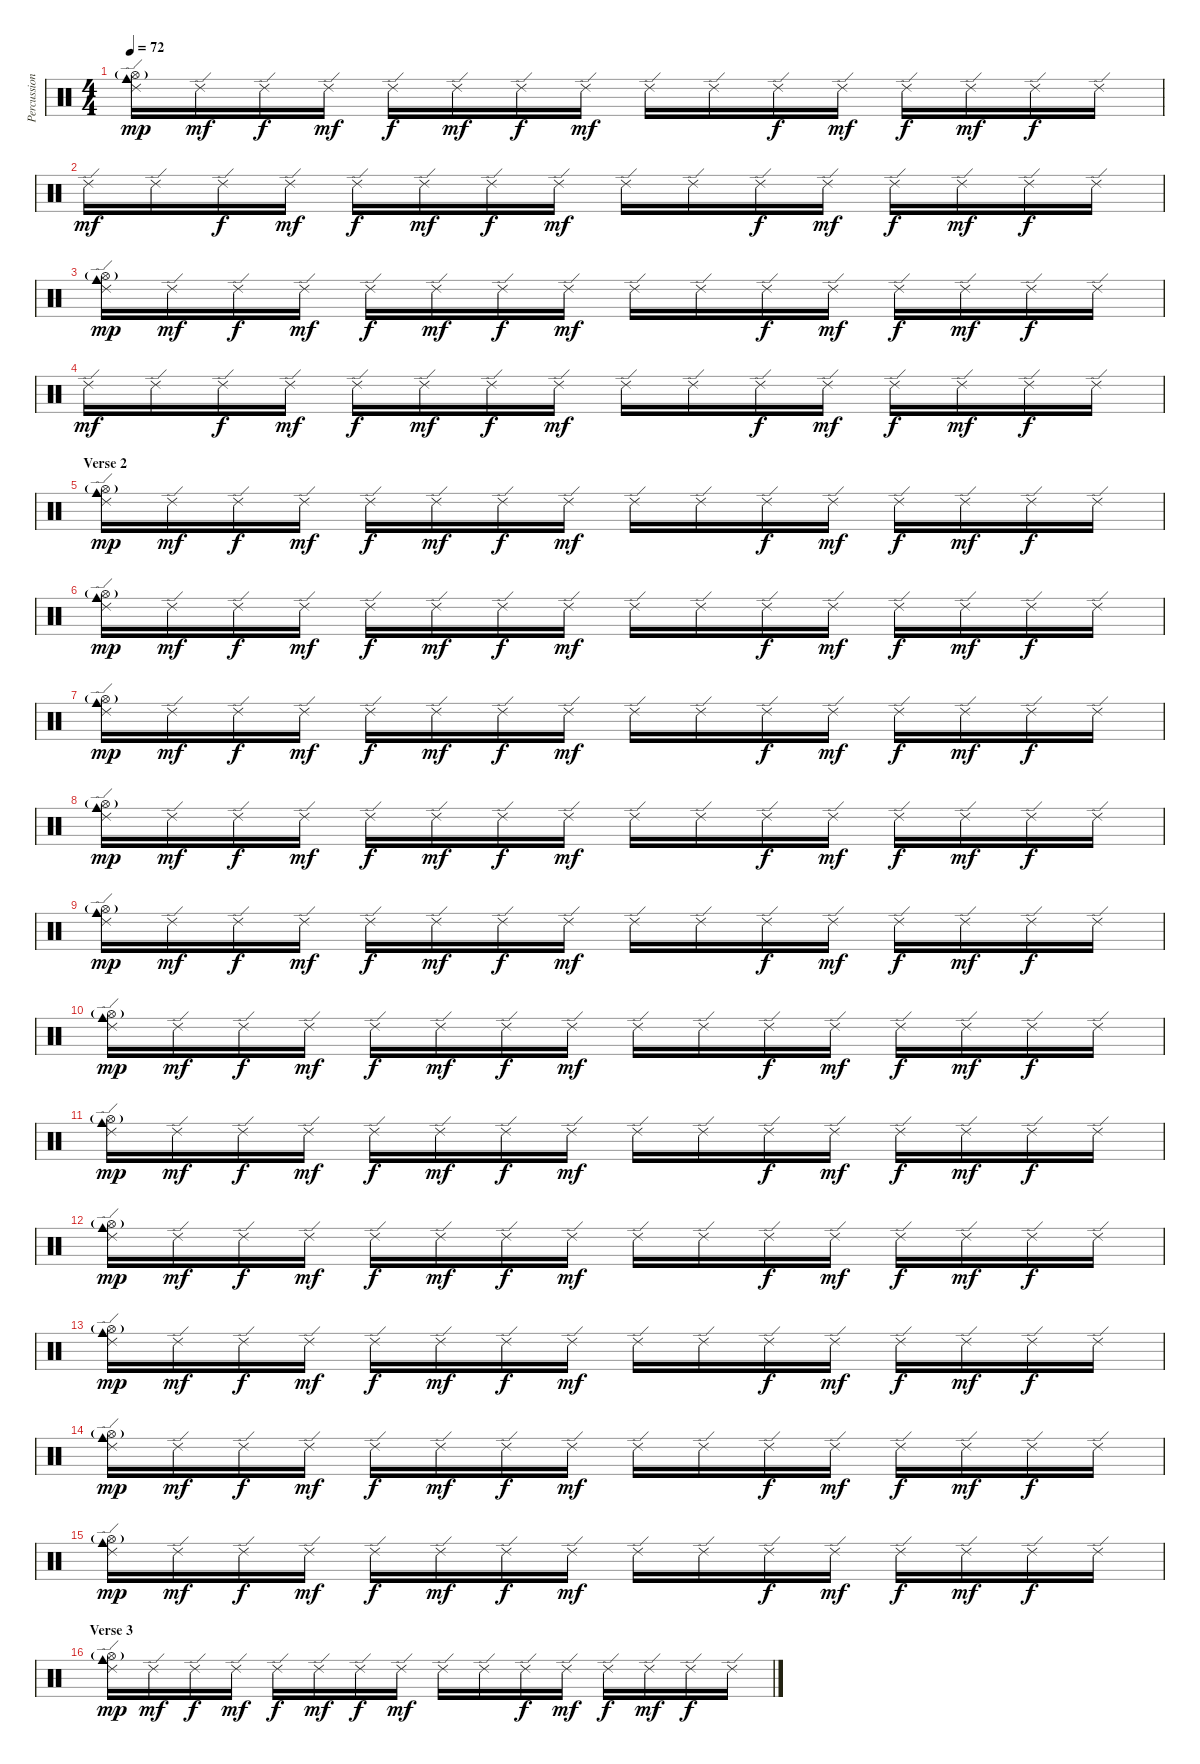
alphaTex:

\track ("Percussion" "Percussion") {instrument percussion}
\staff {score}
\articulation defaults
\ts (4 4)
\tempo 72
\clef neutral
\ks c
("Ride (edge) 2" "Hi-Hat (open)"{g} "Cowbell medium (hit)").16{dy mp} "Ride (edge) 2".16{dy mf} "Ride (edge) 2".16{dy f} "Ride (edge) 2".16{dy mf} "Ride (edge) 2".16{dy f} "Ride (edge) 2".16{dy mf} "Ride (edge) 2".16{dy f} "Ride (edge) 2".16{dy mf} "Ride (edge) 2".16 "Ride (edge) 2".16 "Ride (edge) 2".16{dy f} "Ride (edge) 2".16{dy mf} "Ride (edge) 2".16{dy f} "Ride (edge) 2".16{dy mf} "Ride (edge) 2".16{dy f} "Ride (edge) 2".16 |
"Ride (edge) 2".16{dy mf} "Ride (edge) 2".16 "Ride (edge) 2".16{dy f} "Ride (edge) 2".16{dy mf} "Ride (edge) 2".16{dy f} "Ride (edge) 2".16{dy mf} "Ride (edge) 2".16{dy f} "Ride (edge) 2".16{dy mf} "Ride (edge) 2".16 "Ride (edge) 2".16 "Ride (edge) 2".16{dy f} "Ride (edge) 2".16{dy mf} "Ride (edge) 2".16{dy f} "Ride (edge) 2".16{dy mf} "Ride (edge) 2".16{dy f} "Ride (edge) 2".16 |
("Ride (edge) 2" "Hi-Hat (open)"{g} "Cowbell medium (hit)").16{dy mp} "Ride (edge) 2".16{dy mf} "Ride (edge) 2".16{dy f} "Ride (edge) 2".16{dy mf} "Ride (edge) 2".16{dy f} "Ride (edge) 2".16{dy mf} "Ride (edge) 2".16{dy f} "Ride (edge) 2".16{dy mf} "Ride (edge) 2".16 "Ride (edge) 2".16 "Ride (edge) 2".16{dy f} "Ride (edge) 2".16{dy mf} "Ride (edge) 2".16{dy f} "Ride (edge) 2".16{dy mf} "Ride (edge) 2".16{dy f} "Ride (edge) 2".16 |
"Ride (edge) 2".16{dy mf} "Ride (edge) 2".16 "Ride (edge) 2".16{dy f} "Ride (edge) 2".16{dy mf} "Ride (edge) 2".16{dy f} "Ride (edge) 2".16{dy mf} "Ride (edge) 2".16{dy f} "Ride (edge) 2".16{dy mf} "Ride (edge) 2".16 "Ride (edge) 2".16 "Ride (edge) 2".16{dy f} "Ride (edge) 2".16{dy mf} "Ride (edge) 2".16{dy f} "Ride (edge) 2".16{dy mf} "Ride (edge) 2".16{dy f} "Ride (edge) 2".16 |
\section ("" "Verse 2")
("Ride (edge) 2" "Hi-Hat (open)"{g} "Cowbell medium (hit)").16{dy mp} "Ride (edge) 2".16{dy mf} "Ride (edge) 2".16{dy f} "Ride (edge) 2".16{dy mf} "Ride (edge) 2".16{dy f} "Ride (edge) 2".16{dy mf} "Ride (edge) 2".16{dy f} "Ride (edge) 2".16{dy mf} "Ride (edge) 2".16 "Ride (edge) 2".16 "Ride (edge) 2".16{dy f} "Ride (edge) 2".16{dy mf} "Ride (edge) 2".16{dy f} "Ride (edge) 2".16{dy mf} "Ride (edge) 2".16{dy f} "Ride (edge) 2".16 |
("Ride (edge) 2" "Hi-Hat (open)"{g} "Cowbell medium (hit)").16{dy mp} "Ride (edge) 2".16{dy mf} "Ride (edge) 2".16{dy f} "Ride (edge) 2".16{dy mf} "Ride (edge) 2".16{dy f} "Ride (edge) 2".16{dy mf} "Ride (edge) 2".16{dy f} "Ride (edge) 2".16{dy mf} "Ride (edge) 2".16 "Ride (edge) 2".16 "Ride (edge) 2".16{dy f} "Ride (edge) 2".16{dy mf} "Ride (edge) 2".16{dy f} "Ride (edge) 2".16{dy mf} "Ride (edge) 2".16{dy f} "Ride (edge) 2".16 |
("Ride (edge) 2" "Hi-Hat (open)"{g} "Cowbell medium (hit)").16{dy mp} "Ride (edge) 2".16{dy mf} "Ride (edge) 2".16{dy f} "Ride (edge) 2".16{dy mf} "Ride (edge) 2".16{dy f} "Ride (edge) 2".16{dy mf} "Ride (edge) 2".16{dy f} "Ride (edge) 2".16{dy mf} "Ride (edge) 2".16 "Ride (edge) 2".16 "Ride (edge) 2".16{dy f} "Ride (edge) 2".16{dy mf} "Ride (edge) 2".16{dy f} "Ride (edge) 2".16{dy mf} "Ride (edge) 2".16{dy f} "Ride (edge) 2".16 |
("Ride (edge) 2" "Hi-Hat (open)"{g} "Cowbell medium (hit)").16{dy mp} "Ride (edge) 2".16{dy mf} "Ride (edge) 2".16{dy f} "Ride (edge) 2".16{dy mf} "Ride (edge) 2".16{dy f} "Ride (edge) 2".16{dy mf} "Ride (edge) 2".16{dy f} "Ride (edge) 2".16{dy mf} "Ride (edge) 2".16 "Ride (edge) 2".16 "Ride (edge) 2".16{dy f} "Ride (edge) 2".16{dy mf} "Ride (edge) 2".16{dy f} "Ride (edge) 2".16{dy mf} "Ride (edge) 2".16{dy f} "Ride (edge) 2".16 |
("Ride (edge) 2" "Hi-Hat (open)"{g} "Cowbell medium (hit)").16{dy mp} "Ride (edge) 2".16{dy mf} "Ride (edge) 2".16{dy f} "Ride (edge) 2".16{dy mf} "Ride (edge) 2".16{dy f} "Ride (edge) 2".16{dy mf} "Ride (edge) 2".16{dy f} "Ride (edge) 2".16{dy mf} "Ride (edge) 2".16 "Ride (edge) 2".16 "Ride (edge) 2".16{dy f} "Ride (edge) 2".16{dy mf} "Ride (edge) 2".16{dy f} "Ride (edge) 2".16{dy mf} "Ride (edge) 2".16{dy f} "Ride (edge) 2".16 |
("Ride (edge) 2" "Hi-Hat (open)"{g} "Cowbell medium (hit)").16{dy mp} "Ride (edge) 2".16{dy mf} "Ride (edge) 2".16{dy f} "Ride (edge) 2".16{dy mf} "Ride (edge) 2".16{dy f} "Ride (edge) 2".16{dy mf} "Ride (edge) 2".16{dy f} "Ride (edge) 2".16{dy mf} "Ride (edge) 2".16 "Ride (edge) 2".16 "Ride (edge) 2".16{dy f} "Ride (edge) 2".16{dy mf} "Ride (edge) 2".16{dy f} "Ride (edge) 2".16{dy mf} "Ride (edge) 2".16{dy f} "Ride (edge) 2".16 |
("Ride (edge) 2" "Hi-Hat (open)"{g} "Cowbell medium (hit)").16{dy mp} "Ride (edge) 2".16{dy mf} "Ride (edge) 2".16{dy f} "Ride (edge) 2".16{dy mf} "Ride (edge) 2".16{dy f} "Ride (edge) 2".16{dy mf} "Ride (edge) 2".16{dy f} "Ride (edge) 2".16{dy mf} "Ride (edge) 2".16 "Ride (edge) 2".16 "Ride (edge) 2".16{dy f} "Ride (edge) 2".16{dy mf} "Ride (edge) 2".16{dy f} "Ride (edge) 2".16{dy mf} "Ride (edge) 2".16{dy f} "Ride (edge) 2".16 |
("Ride (edge) 2" "Hi-Hat (open)"{g} "Cowbell medium (hit)").16{dy mp} "Ride (edge) 2".16{dy mf} "Ride (edge) 2".16{dy f} "Ride (edge) 2".16{dy mf} "Ride (edge) 2".16{dy f} "Ride (edge) 2".16{dy mf} "Ride (edge) 2".16{dy f} "Ride (edge) 2".16{dy mf} "Ride (edge) 2".16 "Ride (edge) 2".16 "Ride (edge) 2".16{dy f} "Ride (edge) 2".16{dy mf} "Ride (edge) 2".16{dy f} "Ride (edge) 2".16{dy mf} "Ride (edge) 2".16{dy f} "Ride (edge) 2".16 |
("Ride (edge) 2" "Hi-Hat (open)"{g} "Cowbell medium (hit)").16{dy mp} "Ride (edge) 2".16{dy mf} "Ride (edge) 2".16{dy f} "Ride (edge) 2".16{dy mf} "Ride (edge) 2".16{dy f} "Ride (edge) 2".16{dy mf} "Ride (edge) 2".16{dy f} "Ride (edge) 2".16{dy mf} "Ride (edge) 2".16 "Ride (edge) 2".16 "Ride (edge) 2".16{dy f} "Ride (edge) 2".16{dy mf} "Ride (edge) 2".16{dy f} "Ride (edge) 2".16{dy mf} "Ride (edge) 2".16{dy f} "Ride (edge) 2".16 |
("Ride (edge) 2" "Hi-Hat (open)"{g} "Cowbell medium (hit)").16{dy mp} "Ride (edge) 2".16{dy mf} "Ride (edge) 2".16{dy f} "Ride (edge) 2".16{dy mf} "Ride (edge) 2".16{dy f} "Ride (edge) 2".16{dy mf} "Ride (edge) 2".16{dy f} "Ride (edge) 2".16{dy mf} "Ride (edge) 2".16 "Ride (edge) 2".16 "Ride (edge) 2".16{dy f} "Ride (edge) 2".16{dy mf} "Ride (edge) 2".16{dy f} "Ride (edge) 2".16{dy mf} "Ride (edge) 2".16{dy f} "Ride (edge) 2".16 |
("Ride (edge) 2" "Hi-Hat (open)"{g} "Cowbell medium (hit)").16{dy mp} "Ride (edge) 2".16{dy mf} "Ride (edge) 2".16{dy f} "Ride (edge) 2".16{dy mf} "Ride (edge) 2".16{dy f} "Ride (edge) 2".16{dy mf} "Ride (edge) 2".16{dy f} "Ride (edge) 2".16{dy mf} "Ride (edge) 2".16 "Ride (edge) 2".16 "Ride (edge) 2".16{dy f} "Ride (edge) 2".16{dy mf} "Ride (edge) 2".16{dy f} "Ride (edge) 2".16{dy mf} "Ride (edge) 2".16{dy f} "Ride (edge) 2".16 |
\section ("" "Verse 3")
("Ride (edge) 2" "Hi-Hat (open)"{g} "Cowbell medium (hit)").16{dy mp} "Ride (edge) 2".16{dy mf} "Ride (edge) 2".16{dy f} "Ride (edge) 2".16{dy mf} "Ride (edge) 2".16{dy f} "Ride (edge) 2".16{dy mf} "Ride (edge) 2".16{dy f} "Ride (edge) 2".16{dy mf} "Ride (edge) 2".16 "Ride (edge) 2".16 "Ride (edge) 2".16{dy f} "Ride (edge) 2".16{dy mf} "Ride (edge) 2".16{dy f} "Ride (edge) 2".16{dy mf} "Ride (edge) 2".16{dy f} "Ride (edge) 2".16
